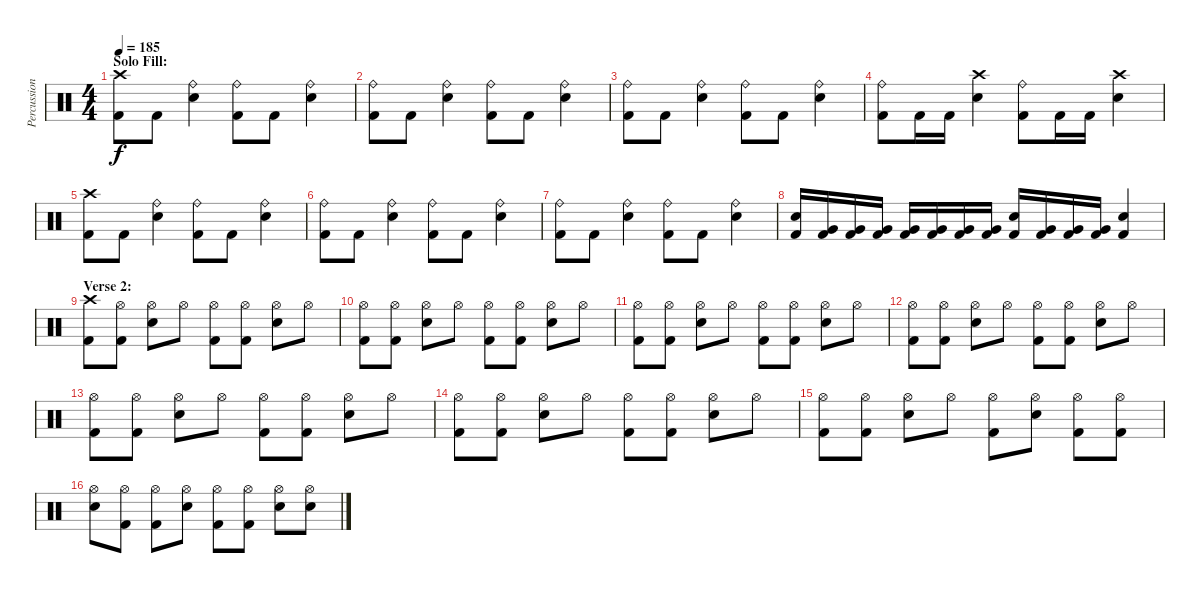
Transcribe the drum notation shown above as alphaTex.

\track ("Percussion" "Percussion") {instrument percussion}
\staff {score}
\articulation defaults
\ts (4 4)
\section ("" "Solo Fill:")
\tempo 185
\clef neutral
\ks c
("Crash high (hit)" "Kick (hit) 2").8{dy f} "Kick (hit) 2".8 ("Ride (bell)" "Snare (hit) 2").4 ("Ride (bell)" "Kick (hit) 2").8 "Kick (hit) 2".8 ("Ride (bell)" "Snare (hit) 2").4 |
("Ride (bell)" "Kick (hit) 2").8 "Kick (hit) 2".8 ("Ride (bell)" "Snare (hit) 2").4 ("Ride (bell)" "Kick (hit) 2").8 "Kick (hit) 2".8 ("Ride (bell)" "Snare (hit) 2").4 |
("Ride (bell)" "Kick (hit) 2").8 "Kick (hit) 2".8 ("Ride (bell)" "Snare (hit) 2").4 ("Ride (bell)" "Kick (hit) 2").8 "Kick (hit) 2".8 ("Ride (bell)" "Snare (hit) 2").4 |
("Ride (bell)" "Kick (hit) 2").8 "Kick (hit) 2".16 "Kick (hit) 2".16 ("Crash high (hit)" "Snare (hit) 2").4 ("Ride (bell)" "Kick (hit) 2").8 "Kick (hit) 2".16 "Kick (hit) 2".16 ("Crash high (hit)" "Snare (hit) 2").4 |
("Crash high (hit)" "Kick (hit) 2").8 "Kick (hit) 2".8 ("Ride (bell)" "Snare (hit) 2").4 ("Ride (bell)" "Kick (hit) 2").8 "Kick (hit) 2".8 ("Ride (bell)" "Snare (hit) 2").4 |
("Ride (bell)" "Kick (hit) 2").8 "Kick (hit) 2".8 ("Ride (bell)" "Snare (hit) 2").4 ("Ride (bell)" "Kick (hit) 2").8 "Kick (hit) 2".8 ("Ride (bell)" "Snare (hit) 2").4 |
("Ride (bell)" "Kick (hit) 2").8 "Kick (hit) 2".8 ("Ride (bell)" "Snare (hit) 2").4 ("Ride (bell)" "Kick (hit) 2").8 "Kick (hit) 2".8 ("Ride (bell)" "Snare (hit) 2").4 |
("Snare (hit) 2" "Kick (hit) 2").16 ("Very Low Tom (hit)" "Kick (hit) 2").16 ("Very Low Tom (hit)" "Kick (hit) 2").16 ("Very Low Tom (hit)" "Kick (hit) 2").16 ("Very Low Tom (hit)" "Kick (hit) 2").16 ("Very Low Tom (hit)" "Kick (hit) 2").16 ("Very Low Tom (hit)" "Kick (hit) 2").16 ("Very Low Tom (hit)" "Kick (hit) 2").16 ("Snare (hit) 2" "Kick (hit) 2").16 ("Very Low Tom (hit)" "Kick (hit) 2").16 ("Very Low Tom (hit)" "Kick (hit) 2").16 ("Very Low Tom (hit)" "Kick (hit) 2").16 ("Snare (hit) 2" "Kick (hit) 2").4 |
\section ("" "Verse 2:")
("Crash high (hit)" "Kick (hit) 2").8 ("Hi-Hat (open)" "Kick (hit) 2").8 ("Hi-Hat (open)" "Snare (hit) 2").8 "Hi-Hat (open)".8 ("Hi-Hat (open)" "Kick (hit) 2").8 ("Hi-Hat (open)" "Kick (hit) 2").8 ("Hi-Hat (open)" "Snare (hit) 2").8 "Hi-Hat (open)".8 |
("Hi-Hat (open)" "Kick (hit) 2").8 ("Hi-Hat (open)" "Kick (hit) 2").8 ("Hi-Hat (open)" "Snare (hit) 2").8 "Hi-Hat (open)".8 ("Hi-Hat (open)" "Kick (hit) 2").8 ("Hi-Hat (open)" "Kick (hit) 2").8 ("Hi-Hat (open)" "Snare (hit) 2").8 "Hi-Hat (open)".8 |
("Hi-Hat (open)" "Kick (hit) 2").8 ("Hi-Hat (open)" "Kick (hit) 2").8 ("Hi-Hat (open)" "Snare (hit) 2").8 "Hi-Hat (open)".8 ("Hi-Hat (open)" "Kick (hit) 2").8 ("Hi-Hat (open)" "Kick (hit) 2").8 ("Hi-Hat (open)" "Snare (hit) 2").8 "Hi-Hat (open)".8 |
("Hi-Hat (open)" "Kick (hit) 2").8 ("Hi-Hat (open)" "Kick (hit) 2").8 ("Hi-Hat (open)" "Snare (hit) 2").8 "Hi-Hat (open)".8 ("Hi-Hat (open)" "Kick (hit) 2").8 ("Hi-Hat (open)" "Kick (hit) 2").8 ("Hi-Hat (open)" "Snare (hit) 2").8 "Hi-Hat (open)".8 |
("Hi-Hat (open)" "Kick (hit) 2").8 ("Hi-Hat (open)" "Kick (hit) 2").8 ("Hi-Hat (open)" "Snare (hit) 2").8 "Hi-Hat (open)".8 ("Hi-Hat (open)" "Kick (hit) 2").8 ("Hi-Hat (open)" "Kick (hit) 2").8 ("Hi-Hat (open)" "Snare (hit) 2").8 "Hi-Hat (open)".8 |
("Hi-Hat (open)" "Kick (hit) 2").8 ("Hi-Hat (open)" "Kick (hit) 2").8 ("Hi-Hat (open)" "Snare (hit) 2").8 "Hi-Hat (open)".8 ("Hi-Hat (open)" "Kick (hit) 2").8 ("Hi-Hat (open)" "Kick (hit) 2").8 ("Hi-Hat (open)" "Snare (hit) 2").8 "Hi-Hat (open)".8 |
("Hi-Hat (open)" "Kick (hit) 2").8 ("Hi-Hat (open)" "Kick (hit) 2").8 ("Hi-Hat (open)" "Snare (hit) 2").8 "Hi-Hat (open)".8 ("Hi-Hat (open)" "Kick (hit) 2").8 ("Hi-Hat (open)" "Snare (hit) 2").8 ("Hi-Hat (open)" "Kick (hit) 2").8 ("Hi-Hat (open)" "Kick (hit) 2").8 |
("Hi-Hat (open)" "Snare (hit) 2").8 ("Hi-Hat (open)" "Kick (hit) 2").8 ("Hi-Hat (open)" "Kick (hit) 2").8 ("Hi-Hat (open)" "Snare (hit) 2").8 ("Hi-Hat (open)" "Kick (hit) 2").8 ("Hi-Hat (open)" "Kick (hit) 2").8 ("Hi-Hat (open)" "Snare (hit) 2").8 ("Hi-Hat (open)" "Snare (hit) 2").8
